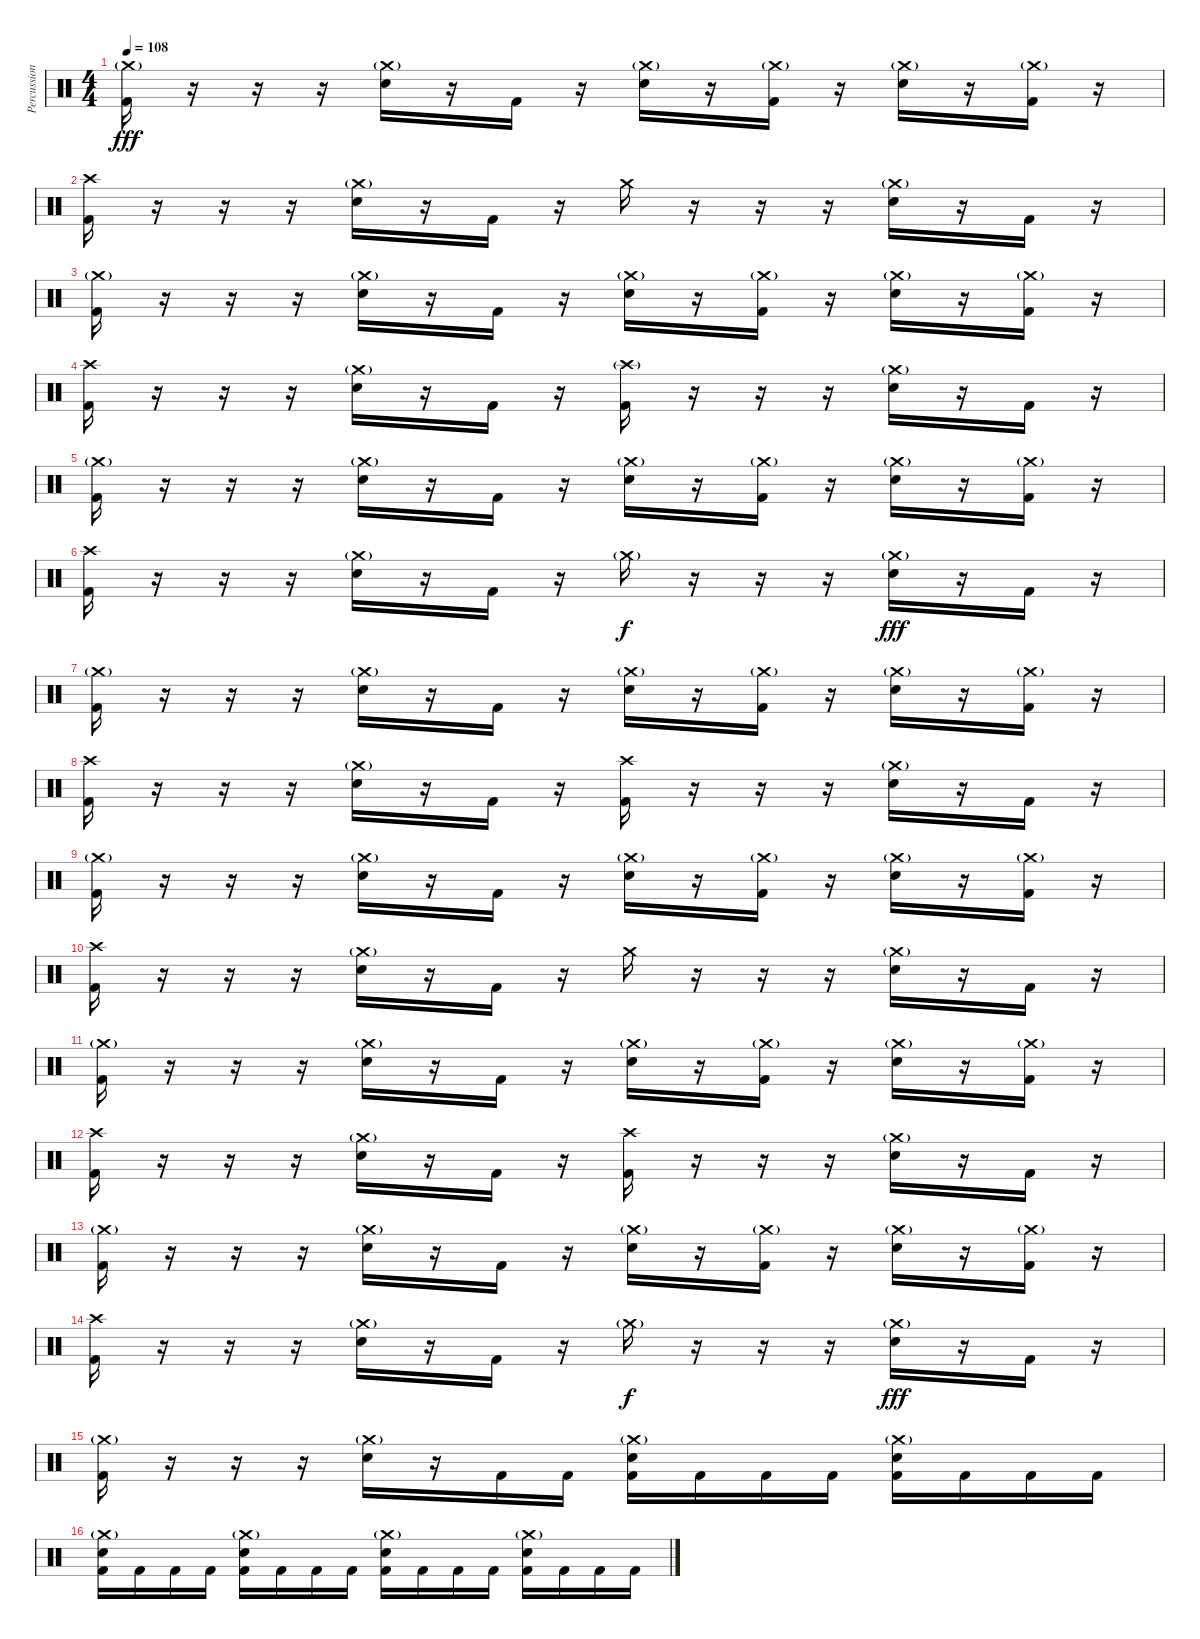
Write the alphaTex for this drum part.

\track ("Percussion" "Percussion") {instrument percussion}
\staff {score}
\articulation defaults
\ts (4 4)
\tempo 108
\clef neutral
\ks c
("Crash medium (hit)"{g} "Kick (hit) 2").16{dy fff} r.16 r.16 r.16 ("Crash medium (hit)"{g} "Electric Snare (hit)").16 r.16 "Kick (hit) 2".16 r.16 ("Crash medium (hit)"{g} "Electric Snare (hit)").16 r.16 ("Crash medium (hit)"{g} "Kick (hit) 2").16 r.16 ("Crash medium (hit)"{g} "Electric Snare (hit)").16 r.16 ("Crash medium (hit)"{g} "Kick (hit) 2").16 r.16 |
("Crash high (hit)" "Kick (hit) 2").16 r.16 r.16 r.16 ("Crash medium (hit)"{g} "Electric Snare (hit)").16 r.16 "Kick (hit) 2".16 r.16 "Crash medium (hit)".16 r.16 r.16 r.16 ("Crash medium (hit)"{g} "Electric Snare (hit)").16 r.16 "Kick (hit) 2".16 r.16 |
("Crash medium (hit)"{g} "Kick (hit) 2").16 r.16 r.16 r.16 ("Crash medium (hit)"{g} "Electric Snare (hit)").16 r.16 "Kick (hit) 2".16 r.16 ("Crash medium (hit)"{g} "Electric Snare (hit)").16 r.16 ("Crash medium (hit)"{g} "Kick (hit) 2").16 r.16 ("Crash medium (hit)"{g} "Electric Snare (hit)").16 r.16 ("Crash medium (hit)"{g} "Kick (hit) 2").16 r.16 |
("Crash high (hit)" "Kick (hit) 2").16 r.16 r.16 r.16 ("Crash medium (hit)"{g} "Electric Snare (hit)").16 r.16 "Kick (hit) 2".16 r.16 ("Crash high (hit)"{g} "Kick (hit) 2").16 r.16 r.16 r.16 ("Crash medium (hit)"{g} "Electric Snare (hit)").16 r.16 "Kick (hit) 2".16 r.16 |
("Crash medium (hit)"{g} "Kick (hit) 2").16 r.16 r.16 r.16 ("Crash medium (hit)"{g} "Electric Snare (hit)").16 r.16 "Kick (hit) 2".16 r.16 ("Crash medium (hit)"{g} "Electric Snare (hit)").16 r.16 ("Crash medium (hit)"{g} "Kick (hit) 2").16 r.16 ("Crash medium (hit)"{g} "Electric Snare (hit)").16 r.16 ("Crash medium (hit)"{g} "Kick (hit) 2").16 r.16 |
("Crash high (hit)" "Kick (hit) 2").16 r.16 r.16 r.16 ("Crash medium (hit)"{g} "Electric Snare (hit)").16 r.16 "Kick (hit) 2".16 r.16 "Crash medium (hit)"{g}.16{dy f} r.16 r.16 r.16 ("Crash medium (hit)"{g} "Electric Snare (hit)").16{dy fff} r.16 "Kick (hit) 2".16 r.16 |
("Crash medium (hit)"{g} "Kick (hit) 2").16 r.16 r.16 r.16 ("Crash medium (hit)"{g} "Electric Snare (hit)").16 r.16 "Kick (hit) 2".16 r.16 ("Crash medium (hit)"{g} "Electric Snare (hit)").16 r.16 ("Crash medium (hit)"{g} "Kick (hit) 2").16 r.16 ("Crash medium (hit)"{g} "Electric Snare (hit)").16 r.16 ("Crash medium (hit)"{g} "Kick (hit) 2").16 r.16 |
("Crash high (hit)" "Kick (hit) 2").16 r.16 r.16 r.16 ("Crash medium (hit)"{g} "Electric Snare (hit)").16 r.16 "Kick (hit) 2".16 r.16 ("Crash high (hit)" "Kick (hit) 2").16 r.16 r.16 r.16 ("Crash medium (hit)"{g} "Electric Snare (hit)").16 r.16 "Kick (hit) 2".16 r.16 |
("Crash medium (hit)"{g} "Kick (hit) 2").16 r.16 r.16 r.16 ("Crash medium (hit)"{g} "Electric Snare (hit)").16 r.16 "Kick (hit) 2".16 r.16 ("Crash medium (hit)"{g} "Electric Snare (hit)").16 r.16 ("Crash medium (hit)"{g} "Kick (hit) 2").16 r.16 ("Crash medium (hit)"{g} "Electric Snare (hit)").16 r.16 ("Crash medium (hit)"{g} "Kick (hit) 2").16 r.16 |
("Crash high (hit)" "Kick (hit) 2").16 r.16 r.16 r.16 ("Crash medium (hit)"{g} "Electric Snare (hit)").16 r.16 "Kick (hit) 2".16 r.16 "Crash medium (hit)".16 r.16 r.16 r.16 ("Crash medium (hit)"{g} "Electric Snare (hit)").16 r.16 "Kick (hit) 2".16 r.16 |
("Crash medium (hit)"{g} "Kick (hit) 2").16 r.16 r.16 r.16 ("Crash medium (hit)"{g} "Electric Snare (hit)").16 r.16 "Kick (hit) 2".16 r.16 ("Crash medium (hit)"{g} "Electric Snare (hit)").16 r.16 ("Crash medium (hit)"{g} "Kick (hit) 2").16 r.16 ("Crash medium (hit)"{g} "Electric Snare (hit)").16 r.16 ("Crash medium (hit)"{g} "Kick (hit) 2").16 r.16 |
("Crash high (hit)" "Kick (hit) 2").16 r.16 r.16 r.16 ("Crash medium (hit)"{g} "Electric Snare (hit)").16 r.16 "Kick (hit) 2".16 r.16 ("Crash high (hit)" "Kick (hit) 2").16 r.16 r.16 r.16 ("Crash medium (hit)"{g} "Electric Snare (hit)").16 r.16 "Kick (hit) 2".16 r.16 |
("Crash medium (hit)"{g} "Kick (hit) 2").16 r.16 r.16 r.16 ("Crash medium (hit)"{g} "Electric Snare (hit)").16 r.16 "Kick (hit) 2".16 r.16 ("Crash medium (hit)"{g} "Electric Snare (hit)").16 r.16 ("Crash medium (hit)"{g} "Kick (hit) 2").16 r.16 ("Crash medium (hit)"{g} "Electric Snare (hit)").16 r.16 ("Crash medium (hit)"{g} "Kick (hit) 2").16 r.16 |
("Crash high (hit)" "Kick (hit) 2").16 r.16 r.16 r.16 ("Crash medium (hit)"{g} "Electric Snare (hit)").16 r.16 "Kick (hit) 2".16 r.16 "Crash medium (hit)"{g}.16{dy f} r.16 r.16 r.16 ("Crash medium (hit)"{g} "Electric Snare (hit)").16{dy fff} r.16 "Kick (hit) 2".16 r.16 |
("Crash medium (hit)"{g} "Kick (hit) 2").16 r.16 r.16 r.16 ("Crash medium (hit)"{g} "Electric Snare (hit)").16 r.16 "Kick (hit) 2".16 "Kick (hit) 2".16 ("Crash medium (hit)"{g} "Electric Snare (hit)" "Kick (hit) 2").16 "Kick (hit) 2".16 "Kick (hit) 2".16 "Kick (hit) 2".16 ("Crash medium (hit)"{g} "Electric Snare (hit)" "Kick (hit) 2").16 "Kick (hit) 2".16 "Kick (hit) 2".16 "Kick (hit) 2".16 |
("Crash medium (hit)"{g} "Electric Snare (hit)" "Kick (hit) 2").16 "Kick (hit) 2".16 "Kick (hit) 2".16 "Kick (hit) 2".16 ("Crash medium (hit)"{g} "Electric Snare (hit)" "Kick (hit) 2").16 "Kick (hit) 2".16 "Kick (hit) 2".16 "Kick (hit) 2".16 ("Crash medium (hit)"{g} "Electric Snare (hit)" "Kick (hit) 2").16 "Kick (hit) 2".16 "Kick (hit) 2".16 "Kick (hit) 2".16 ("Crash medium (hit)"{g} "Electric Snare (hit)" "Kick (hit) 2").16 "Kick (hit) 2".16 "Kick (hit) 2".16 "Kick (hit) 2".16
